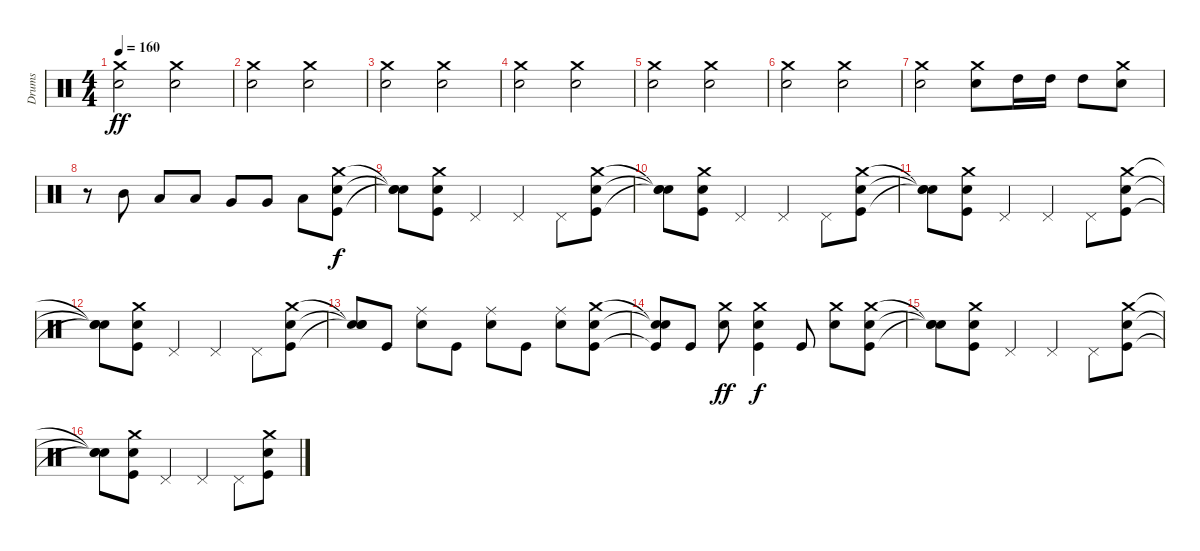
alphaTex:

\track ("Drums" "Drums") {instrument percussion}
\staff {score}
\articulation defaults
\ts (4 4)
\tempo 160
\clef neutral
\ks c
("Crash medium (hit)" "Electric Snare (hit)").2{dy ff} ("Crash medium (hit)" "Electric Snare (hit)").2 |
("Crash medium (hit)" "Electric Snare (hit)").2 ("Crash medium (hit)" "Electric Snare (hit)").2 |
("Crash medium (hit)" "Electric Snare (hit)").2 ("Crash medium (hit)" "Electric Snare (hit)").2 |
("Crash medium (hit)" "Electric Snare (hit)").2 ("Crash medium (hit)" "Electric Snare (hit)").2 |
("Crash medium (hit)" "Electric Snare (hit)").2 ("Crash medium (hit)" "Electric Snare (hit)").2 |
("Crash medium (hit)" "Electric Snare (hit)").2 ("Crash medium (hit)" "Electric Snare (hit)").2 |
("Crash medium (hit)" "Electric Snare (hit)").2 ("Crash medium (hit)" "Electric Snare (hit)").8 "High Tom (hit)".16 "High Tom (hit)".16 "High Tom (hit)".8 ("Crash medium (hit)" "Electric Snare (hit)").8 |
r.8 "Mid Tom (hit)".8 "Low Tom (hit)".8 "Low Tom (hit)".8 "Very Low Tom (hit)".8 "Very Low Tom (hit)".8 "Low Floor Tom (hit)".8 ("Crash medium (hit)" "Electric Snare (hit)" "Kick (hit)").8{dy f} |
("Snare (hit)"{t} "Electric Snare (hit)"{t} "Snare (hit)"{t}).8 ("Crash medium (hit)" "Electric Snare (hit)" "Kick (hit)").8 "Pedal Hi-Hat (hit)".4 "Pedal Hi-Hat (hit)".4 "Pedal Hi-Hat (hit)".8 ("Crash medium (hit)" "Electric Snare (hit)" "Kick (hit)").8 |
("Snare (hit)"{t} "Electric Snare (hit)"{t} "Snare (hit)"{t}).8 ("Crash medium (hit)" "Electric Snare (hit)" "Kick (hit)").8 "Pedal Hi-Hat (hit)".4 "Pedal Hi-Hat (hit)".4 "Pedal Hi-Hat (hit)".8 ("Crash medium (hit)" "Electric Snare (hit)" "Kick (hit)").8 |
("Snare (hit)"{t} "Electric Snare (hit)"{t} "Snare (hit)"{t}).8 ("Crash medium (hit)" "Electric Snare (hit)" "Kick (hit)").8 "Pedal Hi-Hat (hit)".4 "Pedal Hi-Hat (hit)".4 "Pedal Hi-Hat (hit)".8 ("Crash medium (hit)" "Electric Snare (hit)" "Kick (hit)").8 |
("Snare (hit)"{t} "Electric Snare (hit)"{t} "Snare (hit)"{t}).8 ("Crash medium (hit)" "Electric Snare (hit)" "Kick (hit)").8 "Pedal Hi-Hat (hit)".4 "Pedal Hi-Hat (hit)".4 "Pedal Hi-Hat (hit)".8 ("Crash medium (hit)" "Electric Snare (hit)" "Kick (hit)").8 |
("Snare (hit)"{t} "Snare (hit)"{t} "Snare (hit)"{t}).8 "Kick (hit)".8 ("Ride (middle)" "Electric Snare (hit)").8 "Kick (hit)".8 ("Ride (middle)" "Electric Snare (hit)").8 "Kick (hit)".8 ("Ride (middle)" "Electric Snare (hit)").8 ("Crash medium (hit)" "Electric Snare (hit)" "Kick (hit)").8 |
("Snare (hit)"{t} "Snare (hit)"{t} "Kick (hit)"{t}).8 "Kick (hit)".8 ("Crash medium (hit)" "Electric Snare (hit)").8{dy ff} ("Crash medium (hit)" "Electric Snare (hit)" "Kick (hit)").4{dy f} "Kick (hit)".8 ("Crash medium (hit)" "Electric Snare (hit)").8 ("Crash medium (hit)" "Electric Snare (hit)" "Kick (hit)").8 |
("Snare (hit)"{t} "Electric Snare (hit)"{t} "Snare (hit)"{t}).8 ("Crash medium (hit)" "Electric Snare (hit)" "Kick (hit)").8 "Pedal Hi-Hat (hit)".4 "Pedal Hi-Hat (hit)".4 "Pedal Hi-Hat (hit)".8 ("Crash medium (hit)" "Electric Snare (hit)" "Kick (hit)").8 |
("Snare (hit)"{t} "Electric Snare (hit)"{t} "Snare (hit)"{t}).8 ("Crash medium (hit)" "Electric Snare (hit)" "Kick (hit)").8 "Pedal Hi-Hat (hit)".4 "Pedal Hi-Hat (hit)".4 "Pedal Hi-Hat (hit)".8 ("Crash medium (hit)" "Electric Snare (hit)" "Kick (hit)").8
